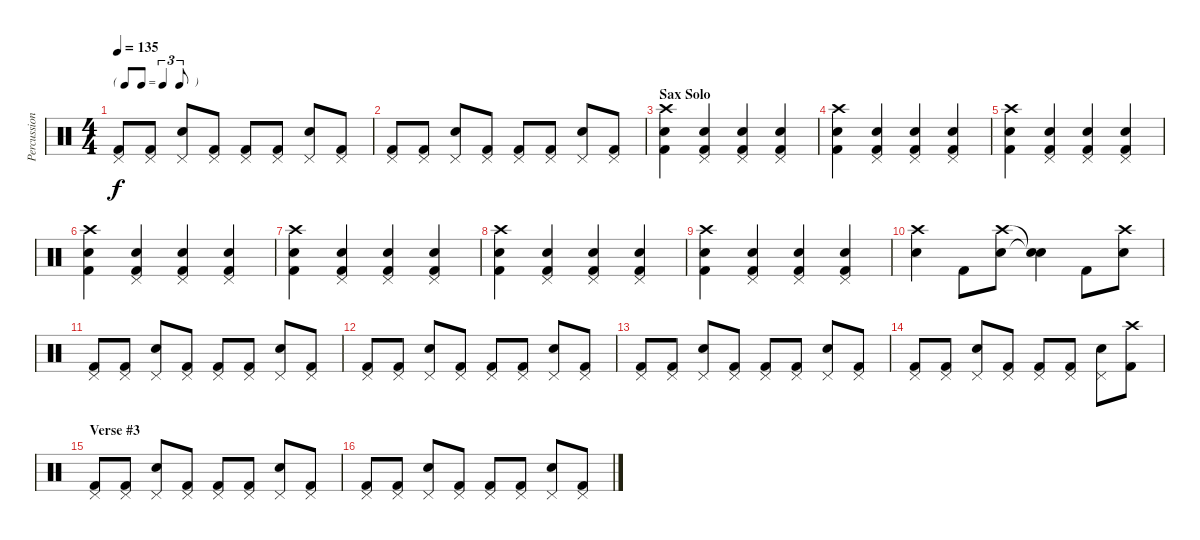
\track ("Percussion" "Percussion") {instrument percussion}
\staff {score}
\articulation defaults
\ts (4 4)
\tf triplet8th
\tempo 135
\clef neutral
\ks c
("Pedal Hi-Hat (hit)" "Kick (hit) 2").8{dy f} ("Pedal Hi-Hat (hit)" "Kick (hit) 2").8 ("Pedal Hi-Hat (hit)" "Electric Snare (hit)").8 ("Pedal Hi-Hat (hit)" "Kick (hit) 2").8 ("Pedal Hi-Hat (hit)" "Kick (hit) 2").8 ("Pedal Hi-Hat (hit)" "Kick (hit) 2").8 ("Pedal Hi-Hat (hit)" "Electric Snare (hit)").8 ("Pedal Hi-Hat (hit)" "Kick (hit) 2").8 |
("Pedal Hi-Hat (hit)" "Kick (hit) 2").8 ("Pedal Hi-Hat (hit)" "Kick (hit) 2").8 ("Pedal Hi-Hat (hit)" "Electric Snare (hit)").8 ("Pedal Hi-Hat (hit)" "Kick (hit) 2").8 ("Pedal Hi-Hat (hit)" "Kick (hit) 2").8 ("Pedal Hi-Hat (hit)" "Kick (hit) 2").8 ("Pedal Hi-Hat (hit)" "Electric Snare (hit)").8 ("Pedal Hi-Hat (hit)" "Kick (hit) 2").8 |
\section ("" "Sax Solo")
("Crash high (hit)" "Electric Snare (hit)" "Kick (hit) 2").4 ("Pedal Hi-Hat (hit)" "Electric Snare (hit)" "Kick (hit) 2").4 ("Pedal Hi-Hat (hit)" "Electric Snare (hit)" "Kick (hit) 2").4 ("Pedal Hi-Hat (hit)" "Electric Snare (hit)" "Kick (hit) 2").4 |
("Crash high (hit)" "Electric Snare (hit)" "Kick (hit) 2").4 ("Pedal Hi-Hat (hit)" "Electric Snare (hit)" "Kick (hit) 2").4 ("Pedal Hi-Hat (hit)" "Electric Snare (hit)" "Kick (hit) 2").4 ("Pedal Hi-Hat (hit)" "Electric Snare (hit)" "Kick (hit) 2").4 |
("Crash high (hit)" "Electric Snare (hit)" "Kick (hit) 2").4 ("Pedal Hi-Hat (hit)" "Electric Snare (hit)" "Kick (hit) 2").4 ("Pedal Hi-Hat (hit)" "Electric Snare (hit)" "Kick (hit) 2").4 ("Pedal Hi-Hat (hit)" "Electric Snare (hit)" "Kick (hit) 2").4 |
("Crash high (hit)" "Electric Snare (hit)" "Kick (hit) 2").4 ("Pedal Hi-Hat (hit)" "Electric Snare (hit)" "Kick (hit) 2").4 ("Pedal Hi-Hat (hit)" "Electric Snare (hit)" "Kick (hit) 2").4 ("Pedal Hi-Hat (hit)" "Electric Snare (hit)" "Kick (hit) 2").4 |
("Crash high (hit)" "Electric Snare (hit)" "Kick (hit) 2").4 ("Pedal Hi-Hat (hit)" "Electric Snare (hit)" "Kick (hit) 2").4 ("Pedal Hi-Hat (hit)" "Electric Snare (hit)" "Kick (hit) 2").4 ("Pedal Hi-Hat (hit)" "Electric Snare (hit)" "Kick (hit) 2").4 |
("Crash high (hit)" "Electric Snare (hit)" "Kick (hit) 2").4 ("Pedal Hi-Hat (hit)" "Electric Snare (hit)" "Kick (hit) 2").4 ("Pedal Hi-Hat (hit)" "Electric Snare (hit)" "Kick (hit) 2").4 ("Pedal Hi-Hat (hit)" "Electric Snare (hit)" "Kick (hit) 2").4 |
("Crash high (hit)" "Electric Snare (hit)" "Kick (hit) 2").4 ("Pedal Hi-Hat (hit)" "Electric Snare (hit)" "Kick (hit) 2").4 ("Pedal Hi-Hat (hit)" "Electric Snare (hit)" "Kick (hit) 2").4 ("Pedal Hi-Hat (hit)" "Electric Snare (hit)" "Kick (hit) 2").4 |
("Crash high (hit)" "Electric Snare (hit)").4 "Kick (hit) 2".8 ("Crash high (hit)" "Electric Snare (hit)").8 ("Snare (hit)"{t} "Snare (hit)"{t}).4 "Kick (hit) 2".8 ("Crash high (hit)" "Electric Snare (hit)").8 |
("Pedal Hi-Hat (hit)" "Kick (hit) 2").8 ("Pedal Hi-Hat (hit)" "Kick (hit) 2").8 ("Pedal Hi-Hat (hit)" "Electric Snare (hit)").8 ("Pedal Hi-Hat (hit)" "Kick (hit) 2").8 ("Pedal Hi-Hat (hit)" "Kick (hit) 2").8 ("Pedal Hi-Hat (hit)" "Kick (hit) 2").8 ("Pedal Hi-Hat (hit)" "Electric Snare (hit)").8 ("Pedal Hi-Hat (hit)" "Kick (hit) 2").8 |
("Pedal Hi-Hat (hit)" "Kick (hit) 2").8 ("Pedal Hi-Hat (hit)" "Kick (hit) 2").8 ("Pedal Hi-Hat (hit)" "Electric Snare (hit)").8 ("Pedal Hi-Hat (hit)" "Kick (hit) 2").8 ("Pedal Hi-Hat (hit)" "Kick (hit) 2").8 ("Pedal Hi-Hat (hit)" "Kick (hit) 2").8 ("Pedal Hi-Hat (hit)" "Electric Snare (hit)").8 ("Pedal Hi-Hat (hit)" "Kick (hit) 2").8 |
("Pedal Hi-Hat (hit)" "Kick (hit) 2").8 ("Pedal Hi-Hat (hit)" "Kick (hit) 2").8 ("Pedal Hi-Hat (hit)" "Electric Snare (hit)").8 ("Pedal Hi-Hat (hit)" "Kick (hit) 2").8 ("Pedal Hi-Hat (hit)" "Kick (hit) 2").8 ("Pedal Hi-Hat (hit)" "Kick (hit) 2").8 ("Pedal Hi-Hat (hit)" "Electric Snare (hit)").8 ("Pedal Hi-Hat (hit)" "Kick (hit) 2").8 |
("Pedal Hi-Hat (hit)" "Kick (hit) 2").8 ("Pedal Hi-Hat (hit)" "Kick (hit) 2").8 ("Pedal Hi-Hat (hit)" "Electric Snare (hit)").8 ("Pedal Hi-Hat (hit)" "Kick (hit) 2").8 ("Pedal Hi-Hat (hit)" "Kick (hit) 2").8 ("Pedal Hi-Hat (hit)" "Kick (hit) 2").8 ("Pedal Hi-Hat (hit)" "Electric Snare (hit)").8 ("Crash high (hit)" "Kick (hit) 2").8 |
\section ("" "Verse #3")
("Pedal Hi-Hat (hit)" "Kick (hit) 2").8 ("Pedal Hi-Hat (hit)" "Kick (hit) 2").8 ("Pedal Hi-Hat (hit)" "Electric Snare (hit)").8 ("Pedal Hi-Hat (hit)" "Kick (hit) 2").8 ("Pedal Hi-Hat (hit)" "Kick (hit) 2").8 ("Pedal Hi-Hat (hit)" "Kick (hit) 2").8 ("Pedal Hi-Hat (hit)" "Electric Snare (hit)").8 ("Pedal Hi-Hat (hit)" "Kick (hit) 2").8 |
("Pedal Hi-Hat (hit)" "Kick (hit) 2").8 ("Pedal Hi-Hat (hit)" "Kick (hit) 2").8 ("Pedal Hi-Hat (hit)" "Electric Snare (hit)").8 ("Pedal Hi-Hat (hit)" "Kick (hit) 2").8 ("Pedal Hi-Hat (hit)" "Kick (hit) 2").8 ("Pedal Hi-Hat (hit)" "Kick (hit) 2").8 ("Pedal Hi-Hat (hit)" "Electric Snare (hit)").8 ("Pedal Hi-Hat (hit)" "Kick (hit) 2").8
